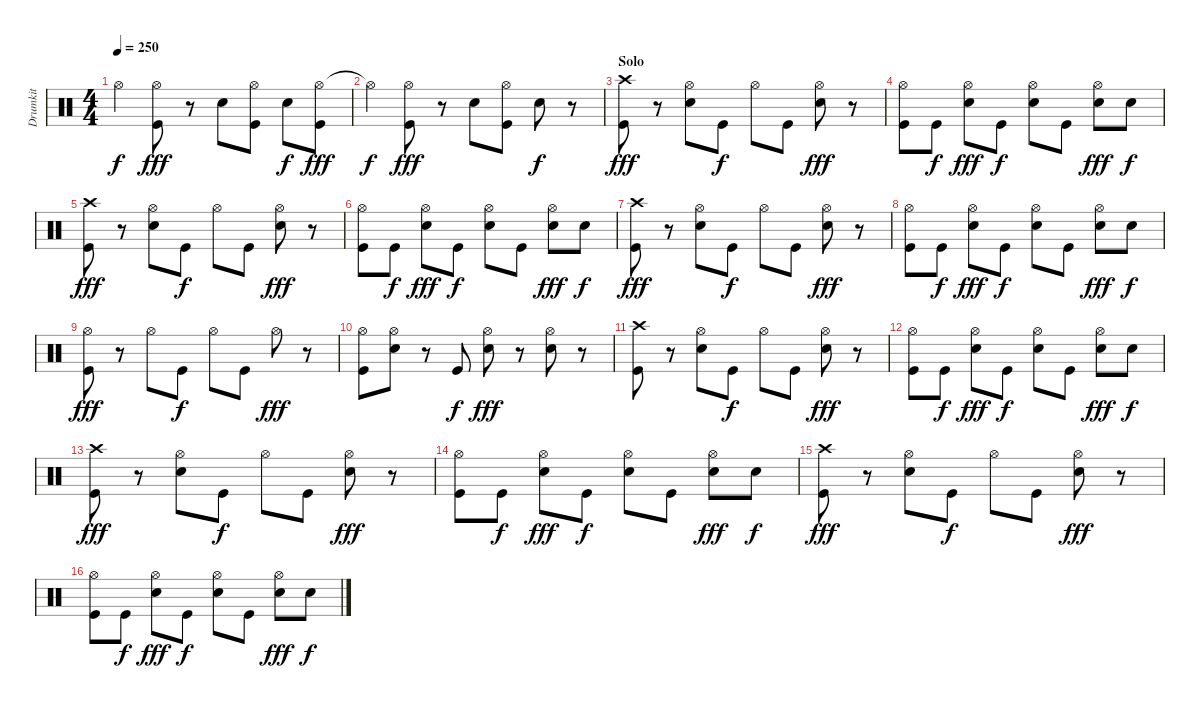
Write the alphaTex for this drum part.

\track ("Drumkit" "Drumkit") {instrument percussion}
\staff {score}
\articulation defaults
\ts (4 4)
\tempo 250
\clef neutral
\ks c "Hi-Hat (open)".4{dy f}
("Hi-Hat (open)" "Kick (hit)").8{dy fff} r.8 "Snare (hit) 2".8 ("Hi-Hat (open)" "Kick (hit)").8 "Snare (hit) 2".8{dy f} ("Hi-Hat (open)" "Kick (hit)").8{dy fff} |
"Hi-Hat (open)"{t}.4{dy f} ("Hi-Hat (open)" "Kick (hit)").8{dy fff} r.8 "Snare (hit) 2".8 ("Hi-Hat (open)" "Kick (hit)").8 "Snare (hit) 2".8{dy f} r.8 |
\section ("" "Solo")
("Crash high (hit)" "Kick (hit)").8{dy fff} r.8 ("Hi-Hat (open)" "Snare (hit) 2").8 "Kick (hit)".8{dy f} "Hi-Hat (open)".8 "Kick (hit)".8 ("Hi-Hat (open)" "Snare (hit) 2").8{dy fff} r.8 |
("Hi-Hat (open)" "Kick (hit)").8 "Kick (hit)".8{dy f} ("Hi-Hat (open)" "Snare (hit) 2").8{dy fff} "Kick (hit)".8{dy f} ("Hi-Hat (open)" "Snare (hit) 2").8 "Kick (hit)".8 ("Hi-Hat (open)" "Snare (hit) 2").8{dy fff} "Snare (hit) 2".8{dy f} |
("Crash high (hit)" "Kick (hit)").8{dy fff} r.8 ("Hi-Hat (open)" "Snare (hit) 2").8 "Kick (hit)".8{dy f} "Hi-Hat (open)".8 "Kick (hit)".8 ("Hi-Hat (open)" "Snare (hit) 2").8{dy fff} r.8 |
("Hi-Hat (open)" "Kick (hit)").8 "Kick (hit)".8{dy f} ("Hi-Hat (open)" "Snare (hit) 2").8{dy fff} "Kick (hit)".8{dy f} ("Hi-Hat (open)" "Snare (hit) 2").8 "Kick (hit)".8 ("Hi-Hat (open)" "Snare (hit) 2").8{dy fff} "Snare (hit) 2".8{dy f} |
("Crash high (hit)" "Kick (hit)").8{dy fff} r.8 ("Hi-Hat (open)" "Snare (hit) 2").8 "Kick (hit)".8{dy f} "Hi-Hat (open)".8 "Kick (hit)".8 ("Hi-Hat (open)" "Snare (hit) 2").8{dy fff} r.8 |
("Hi-Hat (open)" "Kick (hit)").8 "Kick (hit)".8{dy f} ("Hi-Hat (open)" "Snare (hit) 2").8{dy fff} "Kick (hit)".8{dy f} ("Hi-Hat (open)" "Snare (hit) 2").8 "Kick (hit)".8 ("Hi-Hat (open)" "Snare (hit) 2").8{dy fff} "Snare (hit) 2".8{dy f} |
("Hi-Hat (open)" "Kick (hit)").8{dy fff} r.8 "Hi-Hat (open)".8 "Kick (hit)".8{dy f} "Hi-Hat (open)".8 "Kick (hit)".8 "Hi-Hat (open)".8{dy fff} r.8 |
("Hi-Hat (open)" "Kick (hit)").8 ("Hi-Hat (open)" "Snare (hit) 2").8 r.8 "Kick (hit)".8{dy f} ("Hi-Hat (open)" "Snare (hit) 2").8{dy fff} r.8 ("Hi-Hat (open)" "Snare (hit) 2").8 r.8 |
("Crash high (hit)" "Kick (hit)").8 r.8 ("Hi-Hat (open)" "Snare (hit) 2").8 "Kick (hit)".8{dy f} "Hi-Hat (open)".8 "Kick (hit)".8 ("Hi-Hat (open)" "Snare (hit) 2").8{dy fff} r.8 |
("Hi-Hat (open)" "Kick (hit)").8 "Kick (hit)".8{dy f} ("Hi-Hat (open)" "Snare (hit) 2").8{dy fff} "Kick (hit)".8{dy f} ("Hi-Hat (open)" "Snare (hit) 2").8 "Kick (hit)".8 ("Hi-Hat (open)" "Snare (hit) 2").8{dy fff} "Snare (hit) 2".8{dy f} |
("Crash high (hit)" "Kick (hit)").8{dy fff} r.8 ("Hi-Hat (open)" "Snare (hit) 2").8 "Kick (hit)".8{dy f} "Hi-Hat (open)".8 "Kick (hit)".8 ("Hi-Hat (open)" "Snare (hit) 2").8{dy fff} r.8 |
("Hi-Hat (open)" "Kick (hit)").8 "Kick (hit)".8{dy f} ("Hi-Hat (open)" "Snare (hit) 2").8{dy fff} "Kick (hit)".8{dy f} ("Hi-Hat (open)" "Snare (hit) 2").8 "Kick (hit)".8 ("Hi-Hat (open)" "Snare (hit) 2").8{dy fff} "Snare (hit) 2".8{dy f} |
("Crash high (hit)" "Kick (hit)").8{dy fff} r.8 ("Hi-Hat (open)" "Snare (hit) 2").8 "Kick (hit)".8{dy f} "Hi-Hat (open)".8 "Kick (hit)".8 ("Hi-Hat (open)" "Snare (hit) 2").8{dy fff} r.8 |
("Hi-Hat (open)" "Kick (hit)").8 "Kick (hit)".8{dy f} ("Hi-Hat (open)" "Snare (hit) 2").8{dy fff} "Kick (hit)".8{dy f} ("Hi-Hat (open)" "Snare (hit) 2").8 "Kick (hit)".8 ("Hi-Hat (open)" "Snare (hit) 2").8{dy fff} "Snare (hit) 2".8{dy f}
